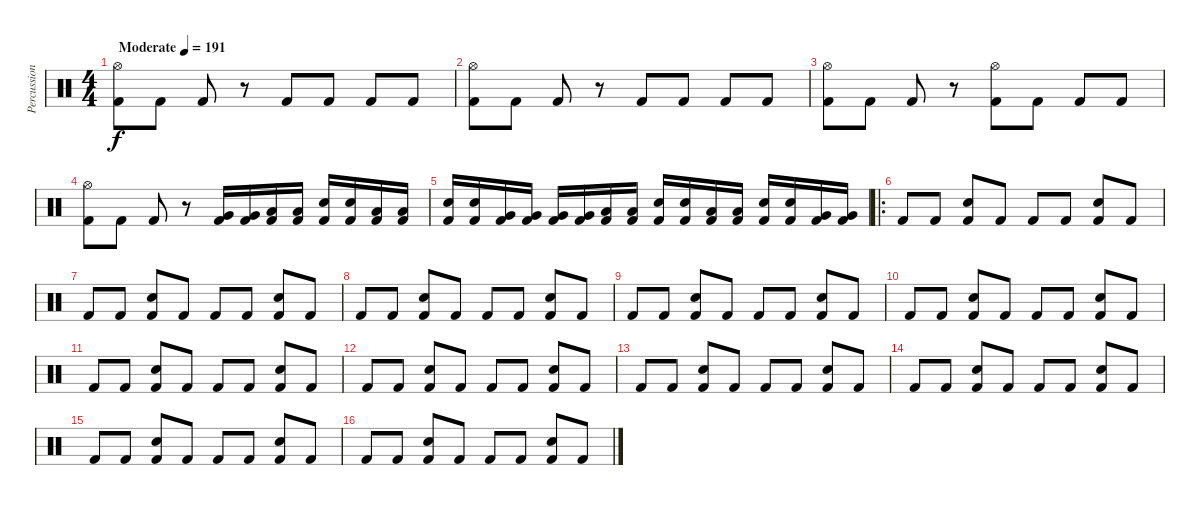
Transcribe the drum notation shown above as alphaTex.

\track ("Percussion" "Percussion") {instrument percussion}
\staff {score}
\articulation defaults
\ts (4 4)
\tempo (191 "Moderate")
\clef neutral
\ks c
("Hi-Hat (open)" "Kick (hit) 2").8{dy f} "Kick (hit) 2".8 "Kick (hit) 2".8 r.8 "Kick (hit) 2".8 "Kick (hit) 2".8 "Kick (hit) 2".8 "Kick (hit) 2".8 |
("Hi-Hat (open)" "Kick (hit) 2").8 "Kick (hit) 2".8 "Kick (hit) 2".8 r.8 "Kick (hit) 2".8 "Kick (hit) 2".8 "Kick (hit) 2".8 "Kick (hit) 2".8 |
("Hi-Hat (open)" "Kick (hit) 2").8 "Kick (hit) 2".8 "Kick (hit) 2".8 r.8 ("Hi-Hat (open)" "Kick (hit) 2").8 "Kick (hit) 2".8 "Kick (hit) 2".8 "Kick (hit) 2".8 |
("Hi-Hat (open)" "Kick (hit) 2").8 "Kick (hit) 2".8 "Kick (hit) 2".8 r.8 ("Very Low Tom (hit)" "Kick (hit) 2").16 ("Very Low Tom (hit)" "Kick (hit) 2").16 ("Low Floor Tom (hit)" "Kick (hit) 2").16 ("Low Floor Tom (hit)" "Kick (hit) 2").16 ("Snare (hit) 2" "Kick (hit) 2").16 ("Snare (hit) 2" "Kick (hit) 2").16 ("Low Floor Tom (hit)" "Kick (hit) 2").16 ("Low Floor Tom (hit)" "Kick (hit) 2").16 |
("Snare (hit) 2" "Kick (hit) 2").16 ("Snare (hit) 2" "Kick (hit) 2").16 ("Very Low Tom (hit)" "Kick (hit) 2").16 ("Very Low Tom (hit)" "Kick (hit) 2").16 ("Very Low Tom (hit)" "Kick (hit) 2").16 ("Very Low Tom (hit)" "Kick (hit) 2").16 ("Low Floor Tom (hit)" "Kick (hit) 2").16 ("Low Floor Tom (hit)" "Kick (hit) 2").16 ("Snare (hit) 2" "Kick (hit) 2").16 ("Snare (hit) 2" "Kick (hit) 2").16 ("Low Floor Tom (hit)" "Kick (hit) 2").16 ("Low Floor Tom (hit)" "Kick (hit) 2").16 ("Snare (hit) 2" "Kick (hit) 2").16 ("Snare (hit) 2" "Kick (hit) 2").16 ("Very Low Tom (hit)" "Kick (hit) 2").16 ("Very Low Tom (hit)" "Kick (hit) 2").16 |
\ro "Kick (hit) 2".8 "Kick (hit) 2".8
("Snare (hit) 2" "Kick (hit) 2").8 "Kick (hit) 2".8 "Kick (hit) 2".8 "Kick (hit) 2".8 ("Snare (hit) 2" "Kick (hit) 2").8 "Kick (hit) 2".8 |
"Kick (hit) 2".8 "Kick (hit) 2".8 ("Snare (hit) 2" "Kick (hit) 2").8 "Kick (hit) 2".8 "Kick (hit) 2".8 "Kick (hit) 2".8 ("Snare (hit) 2" "Kick (hit) 2").8 "Kick (hit) 2".8 |
"Kick (hit) 2".8 "Kick (hit) 2".8 ("Snare (hit) 2" "Kick (hit) 2").8 "Kick (hit) 2".8 "Kick (hit) 2".8 "Kick (hit) 2".8 ("Snare (hit) 2" "Kick (hit) 2").8 "Kick (hit) 2".8 |
"Kick (hit) 2".8 "Kick (hit) 2".8 ("Snare (hit) 2" "Kick (hit) 2").8 "Kick (hit) 2".8 "Kick (hit) 2".8 "Kick (hit) 2".8 ("Snare (hit) 2" "Kick (hit) 2").8 "Kick (hit) 2".8 |
"Kick (hit) 2".8 "Kick (hit) 2".8 ("Snare (hit) 2" "Kick (hit) 2").8 "Kick (hit) 2".8 "Kick (hit) 2".8 "Kick (hit) 2".8 ("Snare (hit) 2" "Kick (hit) 2").8 "Kick (hit) 2".8 |
"Kick (hit) 2".8 "Kick (hit) 2".8 ("Snare (hit) 2" "Kick (hit) 2").8 "Kick (hit) 2".8 "Kick (hit) 2".8 "Kick (hit) 2".8 ("Snare (hit) 2" "Kick (hit) 2").8 "Kick (hit) 2".8 |
"Kick (hit) 2".8 "Kick (hit) 2".8 ("Snare (hit) 2" "Kick (hit) 2").8 "Kick (hit) 2".8 "Kick (hit) 2".8 "Kick (hit) 2".8 ("Snare (hit) 2" "Kick (hit) 2").8 "Kick (hit) 2".8 |
"Kick (hit) 2".8 "Kick (hit) 2".8 ("Snare (hit) 2" "Kick (hit) 2").8 "Kick (hit) 2".8 "Kick (hit) 2".8 "Kick (hit) 2".8 ("Snare (hit) 2" "Kick (hit) 2").8 "Kick (hit) 2".8 |
"Kick (hit) 2".8 "Kick (hit) 2".8 ("Snare (hit) 2" "Kick (hit) 2").8 "Kick (hit) 2".8 "Kick (hit) 2".8 "Kick (hit) 2".8 ("Snare (hit) 2" "Kick (hit) 2").8 "Kick (hit) 2".8 |
"Kick (hit) 2".8 "Kick (hit) 2".8 ("Snare (hit) 2" "Kick (hit) 2").8 "Kick (hit) 2".8 "Kick (hit) 2".8 "Kick (hit) 2".8 ("Snare (hit) 2" "Kick (hit) 2").8 "Kick (hit) 2".8 |
"Kick (hit) 2".8 "Kick (hit) 2".8 ("Snare (hit) 2" "Kick (hit) 2").8 "Kick (hit) 2".8 "Kick (hit) 2".8 "Kick (hit) 2".8 ("Snare (hit) 2" "Kick (hit) 2").8 "Kick (hit) 2".8
